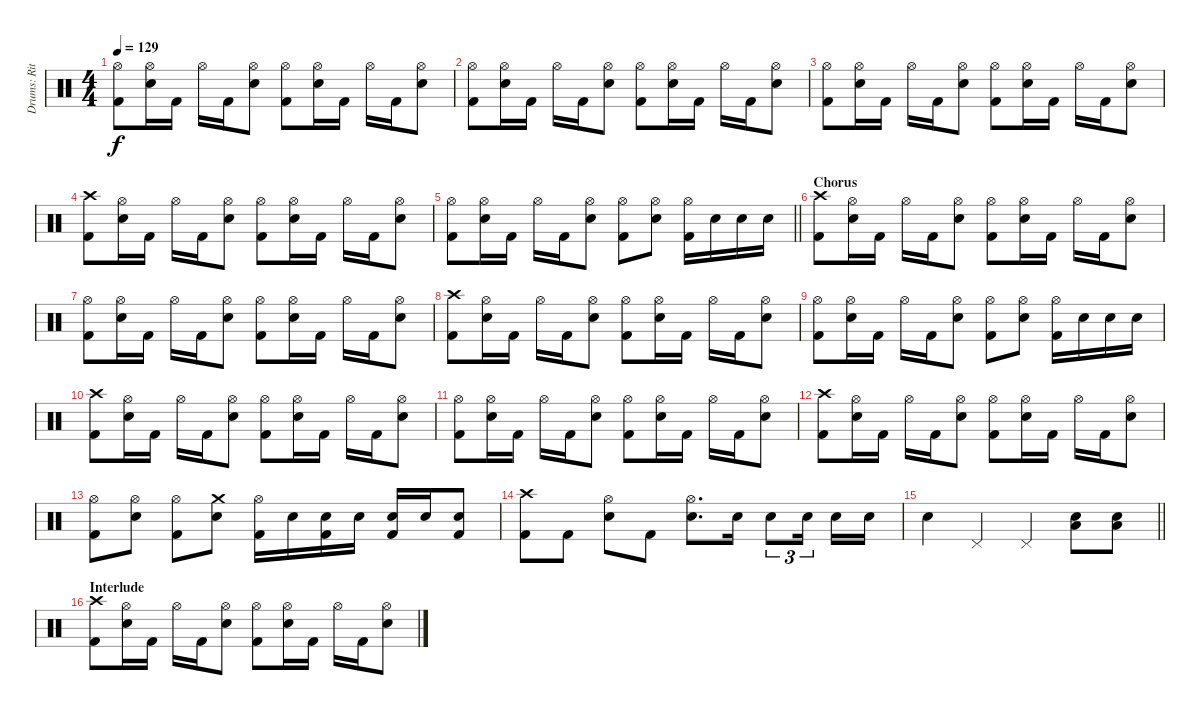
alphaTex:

\track ("Drums: Ritsu Tainaka" "Drums: Rit") {instrument percussion}
\staff {score}
\articulation defaults
\ts (4 4)
\tempo 129
\clef neutral
\ks c
("Hi-Hat (open)" "Kick (hit) 2").8{dy f} ("Hi-Hat (open)" "Electric Snare (hit)").16 "Kick (hit) 2".16 "Hi-Hat (open)".16 "Kick (hit) 2".16 ("Hi-Hat (open)" "Electric Snare (hit)").8 ("Hi-Hat (open)" "Kick (hit) 2").8 ("Hi-Hat (open)" "Electric Snare (hit)").16 "Kick (hit) 2".16 "Hi-Hat (open)".16 "Kick (hit) 2".16 ("Hi-Hat (open)" "Electric Snare (hit)").8 |
("Hi-Hat (open)" "Kick (hit) 2").8 ("Hi-Hat (open)" "Electric Snare (hit)").16 "Kick (hit) 2".16 "Hi-Hat (open)".16 "Kick (hit) 2".16 ("Hi-Hat (open)" "Electric Snare (hit)").8 ("Hi-Hat (open)" "Kick (hit) 2").8 ("Hi-Hat (open)" "Electric Snare (hit)").16 "Kick (hit) 2".16 "Hi-Hat (open)".16 "Kick (hit) 2".16 ("Hi-Hat (open)" "Electric Snare (hit)").8 |
("Hi-Hat (open)" "Kick (hit) 2").8 ("Hi-Hat (open)" "Electric Snare (hit)").16 "Kick (hit) 2".16 "Hi-Hat (open)".16 "Kick (hit) 2".16 ("Hi-Hat (open)" "Electric Snare (hit)").8 ("Hi-Hat (open)" "Kick (hit) 2").8 ("Hi-Hat (open)" "Electric Snare (hit)").16 "Kick (hit) 2".16 "Hi-Hat (open)".16 "Kick (hit) 2".16 ("Hi-Hat (open)" "Electric Snare (hit)").8 |
("Crash high (hit)" "Kick (hit) 2").8 ("Hi-Hat (open)" "Electric Snare (hit)").16 "Kick (hit) 2".16 "Hi-Hat (open)".16 "Kick (hit) 2".16 ("Hi-Hat (open)" "Electric Snare (hit)").8 ("Hi-Hat (open)" "Kick (hit) 2").8 ("Hi-Hat (open)" "Electric Snare (hit)").16 "Kick (hit) 2".16 "Hi-Hat (open)".16 "Kick (hit) 2".16 ("Hi-Hat (open)" "Electric Snare (hit)").8 |
\barLineRight lightlight
("Hi-Hat (open)" "Kick (hit) 2").8 ("Hi-Hat (open)" "Electric Snare (hit)").16 "Kick (hit) 2".16 "Hi-Hat (open)".16 "Kick (hit) 2".16 ("Hi-Hat (open)" "Electric Snare (hit)").8 ("Hi-Hat (open)" "Kick (hit) 2").8 ("Hi-Hat (open)" "Electric Snare (hit)").8 ("Hi-Hat (open)" "Kick (hit) 2").16 "Electric Snare (hit)".16 "Electric Snare (hit)".16 "Electric Snare (hit)".16 |
\section ("" "Chorus")
("Crash high (hit)" "Kick (hit) 2").8 ("Hi-Hat (open)" "Electric Snare (hit)").16 "Kick (hit) 2".16 "Hi-Hat (open)".16 "Kick (hit) 2".16 ("Hi-Hat (open)" "Electric Snare (hit)").8 ("Hi-Hat (open)" "Kick (hit) 2").8 ("Hi-Hat (open)" "Electric Snare (hit)").16 "Kick (hit) 2".16 "Hi-Hat (open)".16 "Kick (hit) 2".16 ("Hi-Hat (open)" "Electric Snare (hit)").8 |
("Hi-Hat (open)" "Kick (hit) 2").8 ("Hi-Hat (open)" "Electric Snare (hit)").16 "Kick (hit) 2".16 "Hi-Hat (open)".16 "Kick (hit) 2".16 ("Hi-Hat (open)" "Electric Snare (hit)").8 ("Hi-Hat (open)" "Kick (hit) 2").8 ("Hi-Hat (open)" "Electric Snare (hit)").16 "Kick (hit) 2".16 "Hi-Hat (open)".16 "Kick (hit) 2".16 ("Hi-Hat (open)" "Electric Snare (hit)").8 |
("Crash high (hit)" "Kick (hit) 2").8 ("Hi-Hat (open)" "Electric Snare (hit)").16 "Kick (hit) 2".16 "Hi-Hat (open)".16 "Kick (hit) 2".16 ("Hi-Hat (open)" "Electric Snare (hit)").8 ("Hi-Hat (open)" "Kick (hit) 2").8 ("Hi-Hat (open)" "Electric Snare (hit)").16 "Kick (hit) 2".16 "Hi-Hat (open)".16 "Kick (hit) 2".16 ("Hi-Hat (open)" "Electric Snare (hit)").8 |
("Hi-Hat (open)" "Kick (hit) 2").8 ("Hi-Hat (open)" "Electric Snare (hit)").16 "Kick (hit) 2".16 "Hi-Hat (open)".16 "Kick (hit) 2".16 ("Hi-Hat (open)" "Electric Snare (hit)").8 ("Hi-Hat (open)" "Kick (hit) 2").8 ("Hi-Hat (open)" "Electric Snare (hit)").8 ("Hi-Hat (open)" "Kick (hit) 2").16 "Electric Snare (hit)".16 "Electric Snare (hit)".16 "Electric Snare (hit)".16 |
("Crash high (hit)" "Kick (hit) 2").8 ("Hi-Hat (open)" "Electric Snare (hit)").16 "Kick (hit) 2".16 "Hi-Hat (open)".16 "Kick (hit) 2".16 ("Hi-Hat (open)" "Electric Snare (hit)").8 ("Hi-Hat (open)" "Kick (hit) 2").8 ("Hi-Hat (open)" "Electric Snare (hit)").16 "Kick (hit) 2".16 "Hi-Hat (open)".16 "Kick (hit) 2".16 ("Hi-Hat (open)" "Electric Snare (hit)").8 |
("Hi-Hat (open)" "Kick (hit) 2").8 ("Hi-Hat (open)" "Electric Snare (hit)").16 "Kick (hit) 2".16 "Hi-Hat (open)".16 "Kick (hit) 2".16 ("Hi-Hat (open)" "Electric Snare (hit)").8 ("Hi-Hat (open)" "Kick (hit) 2").8 ("Hi-Hat (open)" "Electric Snare (hit)").16 "Kick (hit) 2".16 "Hi-Hat (open)".16 "Kick (hit) 2".16 ("Hi-Hat (open)" "Electric Snare (hit)").8 |
("Crash high (hit)" "Kick (hit) 2").8 ("Hi-Hat (open)" "Electric Snare (hit)").16 "Kick (hit) 2".16 "Hi-Hat (open)".16 "Kick (hit) 2".16 ("Hi-Hat (open)" "Electric Snare (hit)").8 ("Hi-Hat (open)" "Kick (hit) 2").8 ("Hi-Hat (open)" "Electric Snare (hit)").16 "Kick (hit) 2".16 "Hi-Hat (open)".16 "Kick (hit) 2".16 ("Hi-Hat (open)" "Electric Snare (hit)").8 |
("Hi-Hat (open)" "Kick (hit) 2").8 ("Hi-Hat (open)" "Electric Snare (hit)").8 ("Hi-Hat (open)" "Kick (hit) 2").8 ("Crash medium (hit)" "Electric Snare (hit)").8 ("Hi-Hat (open)" "Kick (hit) 2").16 "Electric Snare (hit)".16 ("Electric Snare (hit)" "Kick (hit) 2").16 "Electric Snare (hit)".16 ("Electric Snare (hit)" "Kick (hit) 2").16 "Electric Snare (hit)".16 ("Electric Snare (hit)" "Kick (hit) 2").8 |
("Crash high (hit)" "Kick (hit) 2").8 "Kick (hit) 2".8 ("Hi-Hat (open)" "Electric Snare (hit)").8 "Kick (hit) 2".8 ("Hi-Hat (open)" "Electric Snare (hit)").8{d} "Electric Snare (hit)".16 "Electric Snare (hit)".8{tu (3 2)} "Electric Snare (hit)".16{tu (3 2) beam splitsecondary} "Electric Snare (hit)".16 "Electric Snare (hit)".16 |
\barLineRight lightlight "Electric Snare (hit)".4 "Pedal Hi-Hat (hit)".4 "Pedal Hi-Hat (hit)".4
("Electric Snare (hit)" "Low Floor Tom (hit)").8 ("Electric Snare (hit)" "Low Floor Tom (hit)").8 |
\section ("" "Interlude")
("Crash high (hit)" "Kick (hit) 2").8 ("Hi-Hat (open)" "Electric Snare (hit)").16 "Kick (hit) 2".16 "Hi-Hat (open)".16 "Kick (hit) 2".16 ("Hi-Hat (open)" "Electric Snare (hit)").8 ("Hi-Hat (open)" "Kick (hit) 2").8 ("Hi-Hat (open)" "Electric Snare (hit)").16 "Kick (hit) 2".16 "Hi-Hat (open)".16 "Kick (hit) 2".16 ("Hi-Hat (open)" "Electric Snare (hit)").8
